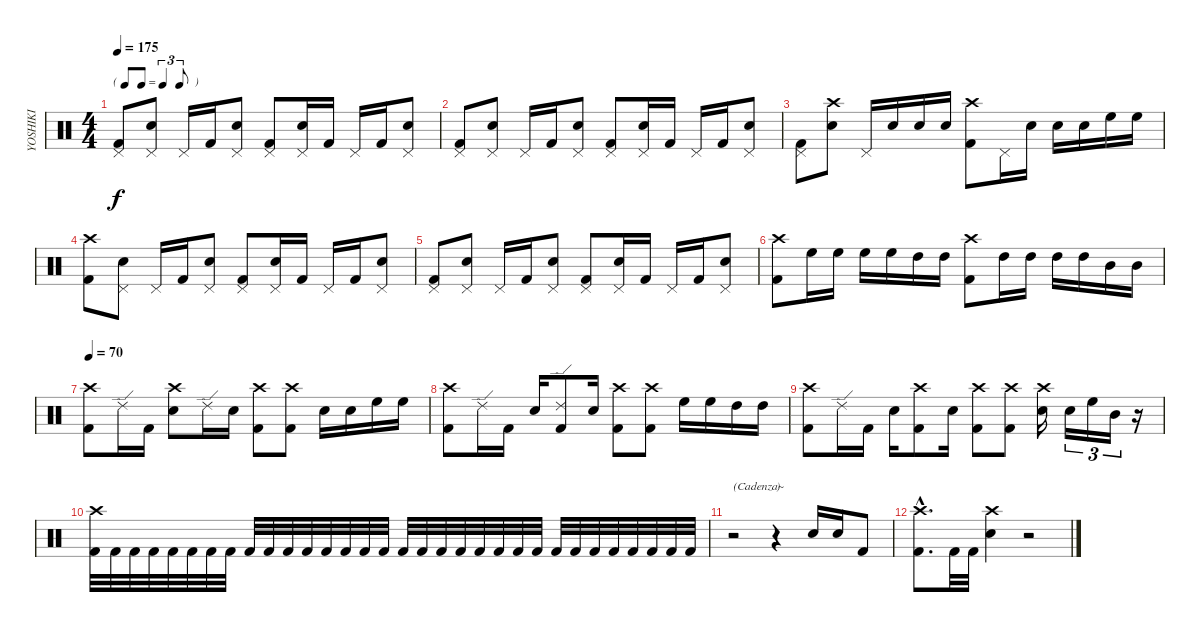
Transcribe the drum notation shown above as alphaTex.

\track ("YOSHIKI" "YOSHIKI") {instrument percussion}
\staff {score}
\articulation defaults
\ts (4 4)
\tf triplet8th
\tempo 175
\clef neutral
\ks c
("Pedal Hi-Hat (hit)" "Kick (hit) 2").8{dy f} ("Pedal Hi-Hat (hit)" "Snare (hit) 2").8 "Pedal Hi-Hat (hit)".16 "Kick (hit) 2".16 ("Pedal Hi-Hat (hit)" "Snare (hit) 2").8 ("Pedal Hi-Hat (hit)" "Kick (hit) 2").8 ("Pedal Hi-Hat (hit)" "Snare (hit) 2").16 "Kick (hit) 2".16 "Pedal Hi-Hat (hit)".16 "Kick (hit) 2".16 ("Pedal Hi-Hat (hit)" "Snare (hit) 2").8 |
("Pedal Hi-Hat (hit)" "Kick (hit) 2").8 ("Pedal Hi-Hat (hit)" "Snare (hit) 2").8 "Pedal Hi-Hat (hit)".16 "Kick (hit) 2".16 ("Pedal Hi-Hat (hit)" "Snare (hit) 2").8 ("Pedal Hi-Hat (hit)" "Kick (hit) 2").8 ("Pedal Hi-Hat (hit)" "Snare (hit) 2").16 "Kick (hit) 2".16 "Pedal Hi-Hat (hit)".16 "Kick (hit) 2".16 ("Pedal Hi-Hat (hit)" "Snare (hit) 2").8 |
("Pedal Hi-Hat (hit)" "Kick (hit) 2").8 ("Crash high (hit)" "Snare (hit) 2").8 "Pedal Hi-Hat (hit)".16 "Snare (hit) 2".16 "Snare (hit) 2".16 "Snare (hit) 2".16 ("Crash high (hit)" "Kick (hit) 2").8 "Pedal Hi-Hat (hit)".16 "Snare (hit) 2".16 "Snare (hit) 2".16 "Snare (hit) 2".16 "High Floor Tom (hit)".16 "High Floor Tom (hit)".16 |
("Crash high (hit)" "Kick (hit) 2").8 ("Pedal Hi-Hat (hit)" "Snare (hit) 2").8 "Pedal Hi-Hat (hit)".16 "Kick (hit) 2".16 ("Pedal Hi-Hat (hit)" "Snare (hit) 2").8 ("Pedal Hi-Hat (hit)" "Kick (hit) 2").8 ("Pedal Hi-Hat (hit)" "Snare (hit) 2").16 "Kick (hit) 2".16 "Pedal Hi-Hat (hit)".16 "Kick (hit) 2".16 ("Pedal Hi-Hat (hit)" "Snare (hit) 2").8 |
("Pedal Hi-Hat (hit)" "Kick (hit) 2").8 ("Pedal Hi-Hat (hit)" "Snare (hit) 2").8 "Pedal Hi-Hat (hit)".16 "Kick (hit) 2".16 ("Pedal Hi-Hat (hit)" "Snare (hit) 2").8 ("Pedal Hi-Hat (hit)" "Kick (hit) 2").8 ("Pedal Hi-Hat (hit)" "Snare (hit) 2").16 "Kick (hit) 2".16 "Pedal Hi-Hat (hit)".16 "Kick (hit) 2".16 ("Pedal Hi-Hat (hit)" "Snare (hit) 2").8 |
("Crash high (hit)" "Kick (hit) 2").8 "High Floor Tom (hit)".16 "High Floor Tom (hit)".16 "High Floor Tom (hit)".16 "High Floor Tom (hit)".16 "High Tom (hit)".16 "High Tom (hit)".16 ("Crash high (hit)" "Kick (hit) 2").8 "High Tom (hit)".16 "High Tom (hit)".16 "High Tom (hit)".16 "High Tom (hit)".16 "Mid Tom (hit)".16 "Mid Tom (hit)".16 |
\tempo 70
("Crash high (hit)" "Kick (hit) 2").8 "Ride (edge) 2".16 "Kick (hit) 2".16 ("Crash high (hit)" "Snare (hit) 2").8 "Ride (edge) 2".16 "Snare (hit) 2".16 ("Crash high (hit)" "Kick (hit) 2").8 ("Crash high (hit)" "Kick (hit) 2").8 "Snare (hit) 2".16 "Snare (hit) 2".16 "High Floor Tom (hit)".16 "High Floor Tom (hit)".16 |
("Crash high (hit)" "Kick (hit) 2").8 "Ride (edge) 2".16 "Kick (hit) 2".16 "Snare (hit) 2".16 ("Ride (edge) 2" "Kick (hit) 2").8 "Snare (hit) 2".16 ("Crash high (hit)" "Kick (hit) 2").8 ("Crash high (hit)" "Kick (hit) 2").8 "High Floor Tom (hit)".16 "High Floor Tom (hit)".16 "High Tom (hit)".16 "High Tom (hit)".16 |
("Crash high (hit)" "Kick (hit) 2").8 "Ride (edge) 2".16 "Kick (hit) 2".16 "Snare (hit) 2".16 ("Crash high (hit)" "Kick (hit) 2").8 "Snare (hit) 2".16 ("Crash high (hit)" "Kick (hit) 2").8 ("Crash high (hit)" "Kick (hit) 2").8 ("Crash high (hit)" "Snare (hit) 2").16 "Snare (hit) 2".16{tu (3 2)} "High Floor Tom (hit)".16{tu (3 2)} "Mid Tom (hit)".16{tu (3 2)} r.16 |
("Crash high (hit)" "Kick (hit) 2").32 "Kick (hit) 2".32 "Kick (hit) 2".32 "Kick (hit) 2".32 "Kick (hit) 2".32 "Kick (hit) 2".32 "Kick (hit) 2".32 "Kick (hit) 2".32 "Kick (hit) 2".32 "Kick (hit) 2".32 "Kick (hit) 2".32 "Kick (hit) 2".32 "Kick (hit) 2".32 "Kick (hit) 2".32 "Kick (hit) 2".32 "Kick (hit) 2".32 "Kick (hit) 2".32 "Kick (hit) 2".32 "Kick (hit) 2".32 "Kick (hit) 2".32 "Kick (hit) 2".32 "Kick (hit) 2".32 "Kick (hit) 2".32 "Kick (hit) 2".32 "Kick (hit) 2".32 "Kick (hit) 2".32 "Kick (hit) 2".32 "Kick (hit) 2".32 "Kick (hit) 2".32 "Kick (hit) 2".32 "Kick (hit) 2".32 "Kick (hit) 2".32 |
r.2{txt "(Cadenza~"} r.4{txt ")"} "Snare (hit) 2".16 "Snare (hit) 2".16 "Kick (hit) 2".8 |
("Crash high (hit)"{hac} "Kick (hit) 2"{hac}).8{d} "Kick (hit) 2".32 "Kick (hit) 2".32 ("Crash high (hit)" "Snare (hit) 2").4 r.2
